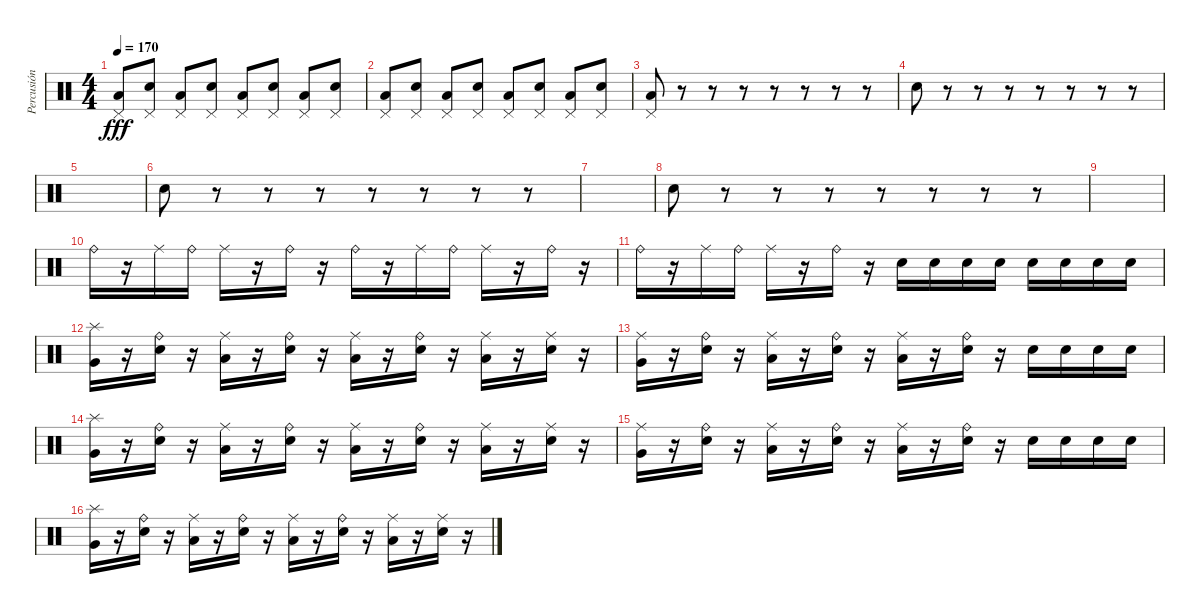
\track ("Percusión" "Percusión") {instrument percussion}
\staff {score}
\articulation defaults
\ts (4 4)
\tempo 170
\clef neutral
\ks c
("Pedal Hi-Hat (hit)" "Low Tom (hit)").8{dy fff} ("Pedal Hi-Hat (hit)" "Electric Snare (hit)").8 ("Pedal Hi-Hat (hit)" "Low Tom (hit)").8 ("Pedal Hi-Hat (hit)" "Electric Snare (hit)").8 ("Pedal Hi-Hat (hit)" "Low Tom (hit)").8 ("Pedal Hi-Hat (hit)" "Electric Snare (hit)").8 ("Pedal Hi-Hat (hit)" "Low Tom (hit)").8 ("Pedal Hi-Hat (hit)" "Electric Snare (hit)").8 |
("Pedal Hi-Hat (hit)" "Low Tom (hit)").8 ("Pedal Hi-Hat (hit)" "Electric Snare (hit)").8 ("Pedal Hi-Hat (hit)" "Low Tom (hit)").8 ("Pedal Hi-Hat (hit)" "Electric Snare (hit)").8 ("Pedal Hi-Hat (hit)" "Low Tom (hit)").8 ("Pedal Hi-Hat (hit)" "Electric Snare (hit)").8 ("Pedal Hi-Hat (hit)" "Low Tom (hit)").8 ("Pedal Hi-Hat (hit)" "Electric Snare (hit)").8 |
("Pedal Hi-Hat (hit)" "Low Tom (hit)").8 r.8 r.8 r.8 r.8 r.8 r.8 r.8 |
"Snare (hit) 2".8 r.8 r.8 r.8 r.8 r.8 r.8 r.8 |
|
"Snare (hit) 2".8 r.8 r.8 r.8 r.8 r.8 r.8 r.8 |
|
"Snare (hit) 2".8 r.8 r.8 r.8 r.8 r.8 r.8 r.8 |
|
"Ride (bell)".16 r.16 "Ride (middle)".16 "Ride (bell)".16 "Ride (middle)".16 r.16 "Ride (bell)".16 r.16 "Ride (bell)".16 r.16 "Ride (middle)".16 "Ride (bell)".16 "Ride (middle)".16 r.16 "Ride (bell)".16 r.16 |
"Ride (bell)".16 r.16 "Ride (middle)".16 "Ride (bell)".16 "Ride (middle)".16 r.16 "Ride (bell)".16 r.16 "Snare (hit) 2".16 "Snare (hit) 2".16 "Snare (hit) 2".16 "Snare (hit) 2".16 "Snare (hit) 2".16 "Snare (hit) 2".16 "Snare (hit) 2".16 "Snare (hit) 2".16 |
("Splash (hit)" "Very Low Tom (hit)").16 r.16 ("Ride (bell)" "Snare (hit) 2").16 r.16 ("Ride (middle)" "Low Tom (hit)").16 r.16 ("Ride (bell)" "Snare (hit) 2").16 r.16 ("Ride (middle)" "Low Tom (hit)").16 r.16 ("Ride (bell)" "Snare (hit) 2").16 r.16 ("Ride (middle)" "Low Tom (hit)").16 r.16 ("Ride (middle)" "Snare (hit) 2").16 r.16 |
("Ride (middle)" "Very Low Tom (hit)").16 r.16 ("Ride (bell)" "Snare (hit) 2").16 r.16 ("Ride (middle)" "Low Tom (hit)").16 r.16 ("Ride (bell)" "Snare (hit) 2").16 r.16 ("Ride (middle)" "Low Tom (hit)").16 r.16 ("Ride (bell)" "Snare (hit) 2").16 r.16 "Snare (hit) 2".16 "Snare (hit) 2".16 "Snare (hit) 2".16 "Snare (hit) 2".16 |
("Splash (hit)" "Very Low Tom (hit)").16 r.16 ("Ride (bell)" "Snare (hit) 2").16 r.16 ("Ride (middle)" "Low Tom (hit)").16 r.16 ("Ride (bell)" "Snare (hit) 2").16 r.16 ("Ride (middle)" "Low Tom (hit)").16 r.16 ("Ride (bell)" "Snare (hit) 2").16 r.16 ("Ride (middle)" "Low Tom (hit)").16 r.16 ("Ride (middle)" "Snare (hit) 2").16 r.16 |
("Ride (middle)" "Very Low Tom (hit)").16 r.16 ("Ride (bell)" "Snare (hit) 2").16 r.16 ("Ride (middle)" "Low Tom (hit)").16 r.16 ("Ride (bell)" "Snare (hit) 2").16 r.16 ("Ride (middle)" "Low Tom (hit)").16 r.16 ("Ride (bell)" "Snare (hit) 2").16 r.16 "Snare (hit) 2".16 "Snare (hit) 2".16 "Snare (hit) 2".16 "Snare (hit) 2".16 |
("Splash (hit)" "Very Low Tom (hit)").16 r.16 ("Ride (bell)" "Snare (hit) 2").16 r.16 ("Ride (middle)" "Low Tom (hit)").16 r.16 ("Ride (bell)" "Snare (hit) 2").16 r.16 ("Ride (middle)" "Low Tom (hit)").16 r.16 ("Ride (bell)" "Snare (hit) 2").16 r.16 ("Ride (middle)" "Low Tom (hit)").16 r.16 ("Ride (middle)" "Snare (hit) 2").16 r.16
